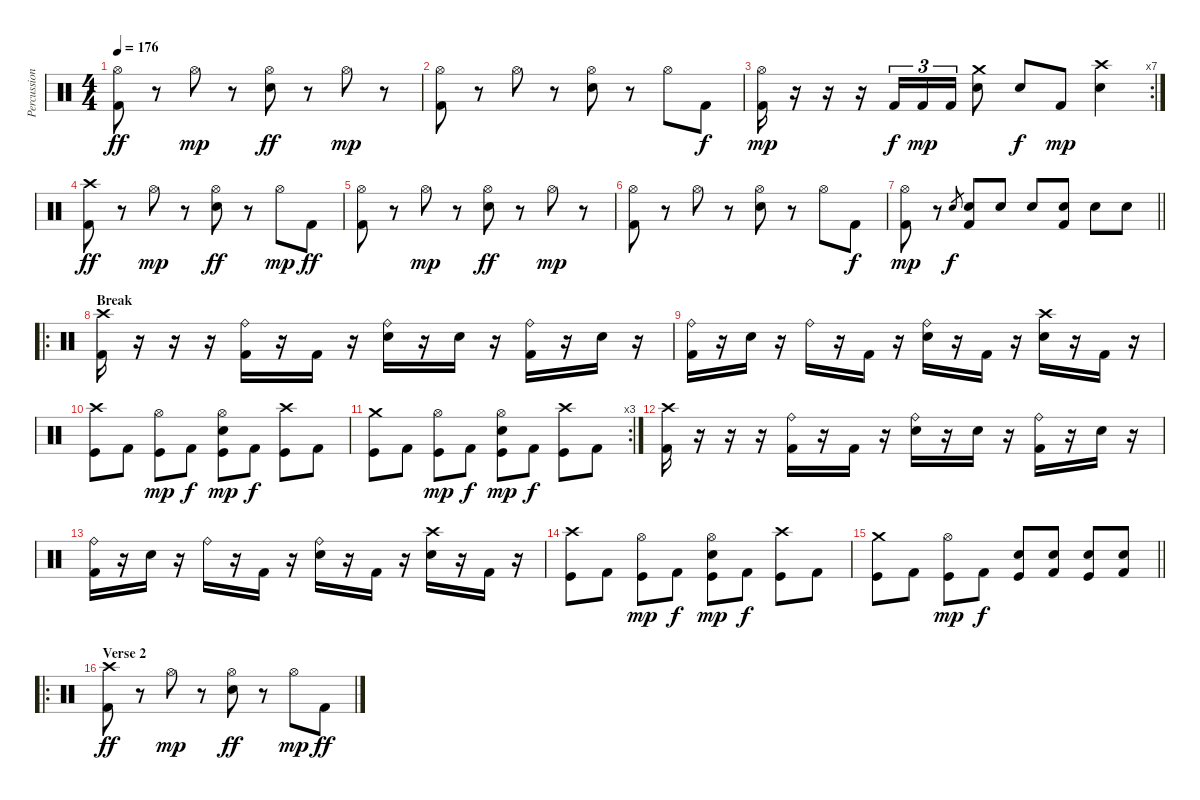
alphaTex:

\track ("Percussion" "Percussion") {instrument percussion}
\staff {score}
\articulation defaults
\ts (4 4)
\tempo 176
\clef neutral
\ks c
("Hi-Hat (open)" "Kick (hit) 2").8{dy ff} r.8 "Hi-Hat (open)".8{dy mp} r.8 ("Hi-Hat (open)" "Electric Snare (hit)").8{dy ff} r.8 "Hi-Hat (open)".8{dy mp} r.8 |
("Hi-Hat (open)" "Kick (hit) 2").8 r.8 "Hi-Hat (open)".8 r.8 ("Hi-Hat (open)" "Electric Snare (hit)").8 r.8 "Hi-Hat (open)".8 "Kick (hit) 2".8{dy f} |
\rc 7
("Hi-Hat (open)" "Kick (hit) 2").16{dy mp} r.16 r.16 r.16 "Kick (hit) 2".16{tu (3 2) dy f} "Kick (hit) 2".16{tu (3 2) dy mp} "Kick (hit) 2".16{tu (3 2)} ("Crash medium (hit)" "Electric Snare (hit)").8 "Electric Snare (hit)".8{dy f} "Kick (hit) 2".8{dy mp} ("Crash high (hit)" "Electric Snare (hit)").4 |
("Crash high (hit)" "Kick (hit) 2").8{dy ff} r.8 "Hi-Hat (open)".8{dy mp} r.8 ("Hi-Hat (open)" "Electric Snare (hit)").8{dy ff} r.8 "Hi-Hat (open)".8{dy mp} "Kick (hit) 2".8{dy ff} |
("Hi-Hat (open)" "Kick (hit) 2").8 r.8 "Hi-Hat (open)".8{dy mp} r.8 ("Hi-Hat (open)" "Electric Snare (hit)").8{dy ff} r.8 "Hi-Hat (open)".8{dy mp} r.8 |
("Hi-Hat (open)" "Kick (hit) 2").8 r.8 "Hi-Hat (open)".8 r.8 ("Hi-Hat (open)" "Electric Snare (hit)").8 r.8 "Hi-Hat (open)".8 "Kick (hit) 2".8{dy f} |
\barLineRight lightlight
("Hi-Hat (open)" "Kick (hit) 2").8{dy mp} r.8 "Electric Snare (hit)"{h}.8{gr dy f} ("Electric Snare (hit)" "Kick (hit) 2").8 "Electric Snare (hit)".8 "Electric Snare (hit)".8 ("Electric Snare (hit)" "Kick (hit) 2").8 "Electric Snare (hit)".8 "Electric Snare (hit)".8 |
\ro
\section ("" "Break")
("Crash high (hit)" "Kick (hit) 2").16 r.16 r.16 r.16 ("Ride (bell)" "Kick (hit) 2").16 r.16 "Kick (hit) 2".16 r.16 ("Ride (bell)" "Electric Snare (hit)").16 r.16 "Electric Snare (hit)".16 r.16 ("Ride (bell)" "Kick (hit) 2").16 r.16 "Electric Snare (hit)".16 r.16 |
("Ride (bell)" "Kick (hit) 2").16 r.16 "Electric Snare (hit)".16 r.16 "Ride (bell)".16 r.16 "Kick (hit) 2".16 r.16 ("Ride (bell)" "Electric Snare (hit)").16 r.16 "Kick (hit) 2".16 r.16 ("Crash high (hit)" "Electric Snare (hit)").16 r.16 "Kick (hit) 2".16 r.16 |
("Crash high (hit)" "Kick (hit)").8 "Kick (hit) 2".8 ("Hi-Hat (open)" "Kick (hit)").8{dy mp} "Kick (hit) 2".8{dy f} ("Hi-Hat (open)" "Electric Snare (hit)" "Kick (hit)").8{dy mp} "Kick (hit) 2".8{dy f} ("Crash high (hit)" "Kick (hit)").8 "Kick (hit) 2".8 |
\rc 3
("Crash medium (hit)" "Kick (hit)").8 "Kick (hit) 2".8 ("Hi-Hat (open)" "Kick (hit)").8{dy mp} "Kick (hit) 2".8{dy f} ("Hi-Hat (open)" "Electric Snare (hit)" "Kick (hit)").8{dy mp} "Kick (hit) 2".8{dy f} ("Crash high (hit)" "Kick (hit)").8 "Kick (hit) 2".8 |
("Crash high (hit)" "Kick (hit) 2").16 r.16 r.16 r.16 ("Ride (bell)" "Kick (hit) 2").16 r.16 "Kick (hit) 2".16 r.16 ("Ride (bell)" "Electric Snare (hit)").16 r.16 "Electric Snare (hit)".16 r.16 ("Ride (bell)" "Kick (hit) 2").16 r.16 "Electric Snare (hit)".16 r.16 |
("Ride (bell)" "Kick (hit) 2").16 r.16 "Electric Snare (hit)".16 r.16 "Ride (bell)".16 r.16 "Kick (hit) 2".16 r.16 ("Ride (bell)" "Electric Snare (hit)").16 r.16 "Kick (hit) 2".16 r.16 ("Crash high (hit)" "Electric Snare (hit)").16 r.16 "Kick (hit) 2".16 r.16 |
("Crash high (hit)" "Kick (hit)").8 "Kick (hit) 2".8 ("Hi-Hat (open)" "Kick (hit)").8{dy mp} "Kick (hit) 2".8{dy f} ("Hi-Hat (open)" "Electric Snare (hit)" "Kick (hit)").8{dy mp} "Kick (hit) 2".8{dy f} ("Crash high (hit)" "Kick (hit)").8 "Kick (hit) 2".8 |
\barLineRight lightlight
("Crash medium (hit)" "Kick (hit)").8 "Kick (hit) 2".8 ("Hi-Hat (open)" "Kick (hit)").8{dy mp} "Kick (hit) 2".8{dy f} ("Electric Snare (hit)" "Kick (hit)").8 ("Electric Snare (hit)" "Kick (hit) 2").8 ("Electric Snare (hit)" "Kick (hit)").8 ("Electric Snare (hit)" "Kick (hit) 2").8 |
\ro
\section ("" "Verse 2")
("Crash high (hit)" "Kick (hit) 2").8{dy ff} r.8 "Hi-Hat (open)".8{dy mp} r.8 ("Hi-Hat (open)" "Electric Snare (hit)").8{dy ff} r.8 "Hi-Hat (open)".8{dy mp} "Kick (hit) 2".8{dy ff}
